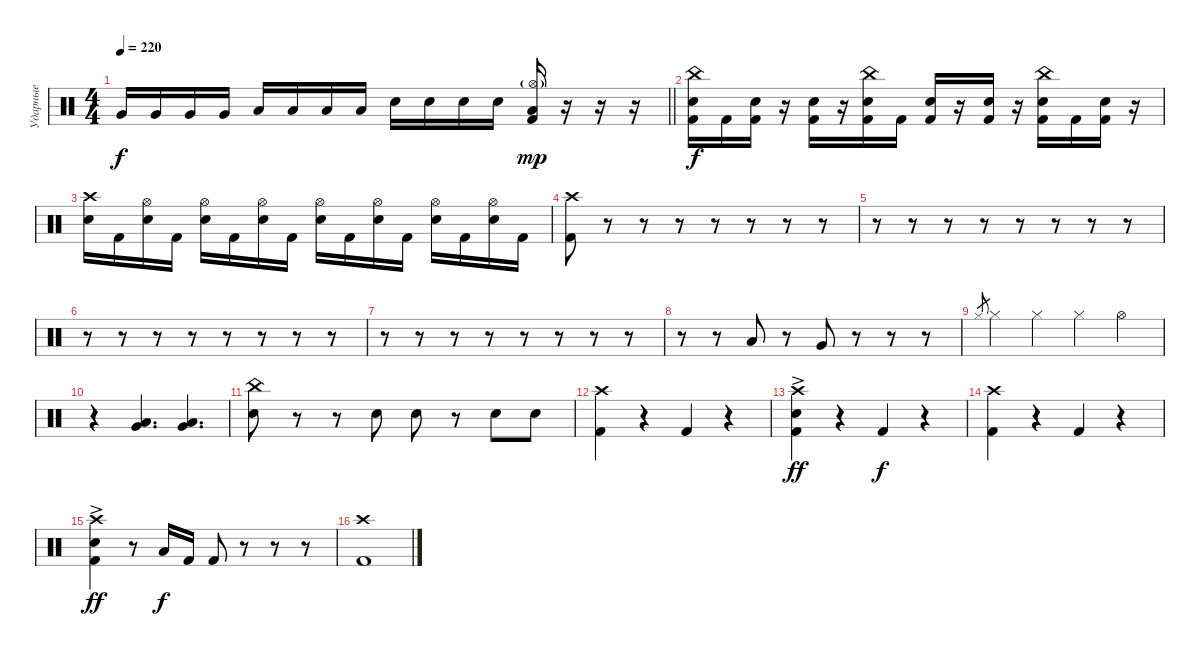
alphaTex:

\track ("Ударные" "Ударные") {instrument percussion}
\staff {score}
\articulation defaults
\ts (4 4)
\tempo 220
\clef neutral
\barLineRight lightlight
\ks c "Very Low Tom (hit)".16{dy f} "Very Low Tom (hit)".16 "Very Low Tom (hit)".16 "Very Low Tom (hit)".16 "Low Tom (hit)".16 "Low Tom (hit)".16 "Low Tom (hit)".16 "Low Tom (hit)".16 "Electric Snare (hit)".16 "Electric Snare (hit)".16 "Electric Snare (hit)".16 "Electric Snare (hit)".16
("Hi-Hat (open)"{g} "Kick (hit) 2" "Low Tom (hit)").16{dy mp} r.16 r.16 r.16 |
("Electric Snare (hit)" "Kick (hit) 2" "China (hit)").16{dy f} "Kick (hit) 2".16 ("Electric Snare (hit)" "Kick (hit) 2").16 r.16 ("Electric Snare (hit)" "Kick (hit) 2").16 r.16 ("Electric Snare (hit)" "Kick (hit) 2" "China (hit)").16 "Kick (hit) 2".16 ("Electric Snare (hit)" "Kick (hit) 2").16 r.16 ("Electric Snare (hit)" "Kick (hit) 2").16 r.16 ("Electric Snare (hit)" "Kick (hit) 2" "China (hit)").16 "Kick (hit) 2".16 ("Electric Snare (hit)" "Kick (hit) 2").16 r.16 |
("Electric Snare (hit)" "Crash high (hit)").16 "Kick (hit) 2".16 ("Electric Snare (hit)" "Hi-Hat (open)").16 "Kick (hit) 2".16 ("Electric Snare (hit)" "Hi-Hat (open)").16 "Kick (hit) 2".16 ("Electric Snare (hit)" "Hi-Hat (open)").16 "Kick (hit) 2".16 ("Electric Snare (hit)" "Hi-Hat (open)").16 "Kick (hit) 2".16 ("Electric Snare (hit)" "Hi-Hat (open)").16 "Kick (hit) 2".16 ("Electric Snare (hit)" "Hi-Hat (open)").16 "Kick (hit) 2".16 ("Electric Snare (hit)" "Hi-Hat (open)").16 "Kick (hit) 2".16 |
("Crash high (hit)" "Kick (hit) 2").8 r.8 r.8 r.8 r.8 r.8 r.8 r.8 |
r.8 r.8 r.8 r.8 r.8 r.8 r.8 r.8 |
r.8 r.8 r.8 r.8 r.8 r.8 r.8 r.8 |
r.8 r.8 r.8 r.8 r.8 r.8 r.8 r.8 |
r.8 r.8 "Low Floor Tom (hit)".8 r.8 "Very Low Tom (hit)".8 r.8 r.8 r.8 |
"Hi-Hat (closed)".8{gr} "Hi-Hat (closed)".4 "Hi-Hat (closed)".4 "Hi-Hat (closed)".4 "Hi-Hat (open)".4 |
r.4 ("Low Floor Tom (hit)" "Very Low Tom (hit)").4{d} ("Low Floor Tom (hit)" "Very Low Tom (hit)").4{d} |
("Electric Snare (hit)" "China (hit)").8 r.8 r.8 "Electric Snare (hit)".8 "Electric Snare (hit)".8 r.8 "Electric Snare (hit)".8 "Electric Snare (hit)".8 |
("Kick (hit) 2" "Crash high (hit)").4 r.4 "Kick (hit) 2".4 r.4 |
("Kick (hit) 2" "Electric Snare (hit)"{ac} "Crash high (hit)").4{dy ff} r.4 "Kick (hit) 2".4{dy f} r.4 |
("Kick (hit) 2" "Crash high (hit)").4 r.4 "Kick (hit) 2".4 r.4 |
("Kick (hit) 2" "Electric Snare (hit)"{ac} "Crash high (hit)").4{dy ff} r.8 "Low Tom (hit)".16{dy f} "Kick (hit) 2".16 "Kick (hit) 2".8 r.8 r.8 r.8 |
("Kick (hit) 2" "Crash high (hit)").1
